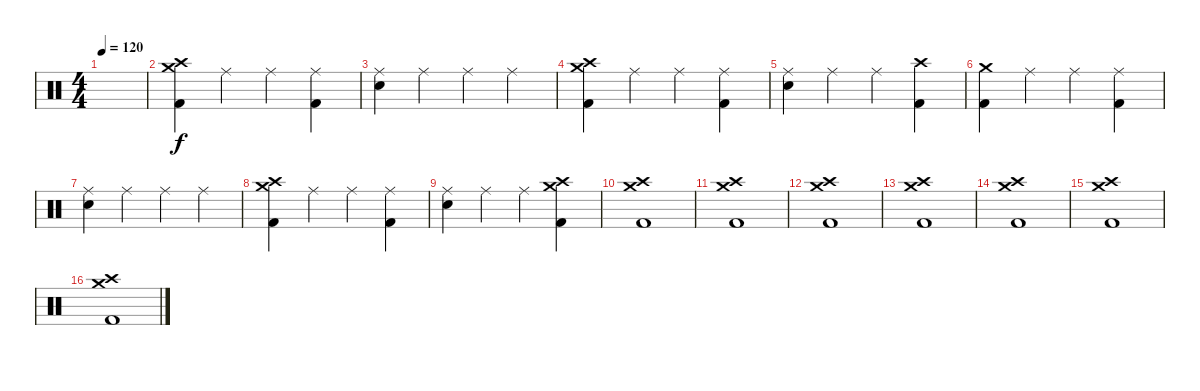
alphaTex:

\track "" {instrument percussion}
\staff {score}
\articulation defaults
\ts (4 4)
\tempo 120
\clef neutral
\ks c
|
("Kick (hit) 2" "Crash high (hit)" "Crash medium (hit)").4 "Ride (middle)".4 "Ride (middle)".4 ("Ride (middle)" "Kick (hit) 2").4 |
("Ride (middle)" "Snare (hit) 2").4 "Ride (middle)".4 "Ride (middle)".4 "Ride (middle)".4 |
("Kick (hit) 2" "Crash high (hit)" "Crash medium (hit)").4 "Ride (middle)".4 "Ride (middle)".4 ("Kick (hit) 2" "Ride (middle)").4 |
("Ride (middle)" "Snare (hit) 2").4 "Ride (middle)".4 "Ride (middle)".4 ("Kick (hit) 2" "Crash high (hit)").4 |
("Kick (hit) 2" "Crash medium (hit)").4 "Ride (middle)".4 "Ride (middle)".4 ("Kick (hit) 2" "Ride (middle)").4 |
("Ride (middle)" "Snare (hit) 2").4 "Ride (middle)".4 "Ride (middle)".4 "Ride (middle)".4 |
("Kick (hit) 2" "Crash medium (hit)" "Crash high (hit)").4 "Ride (middle)".4 "Ride (middle)".4 ("Ride (middle)" "Kick (hit) 2").4 |
("Ride (middle)" "Snare (hit) 2").4 "Ride (middle)".4 "Ride (middle)".4 ("Kick (hit) 2" "Crash high (hit)" "Crash medium (hit)").4 |
("Kick (hit) 2" "Crash high (hit)" "Crash medium (hit)").1 |
("Kick (hit) 2" "Crash high (hit)" "Crash medium (hit)").1 |
("Kick (hit) 2" "Crash high (hit)" "Crash medium (hit)").1 |
("Kick (hit) 2" "Crash high (hit)" "Crash medium (hit)").1 |
("Kick (hit) 2" "Crash high (hit)" "Crash medium (hit)").1 |
("Kick (hit) 2" "Crash high (hit)" "Crash medium (hit)").1 |
("Kick (hit) 2" "Crash high (hit)" "Crash medium (hit)").1
